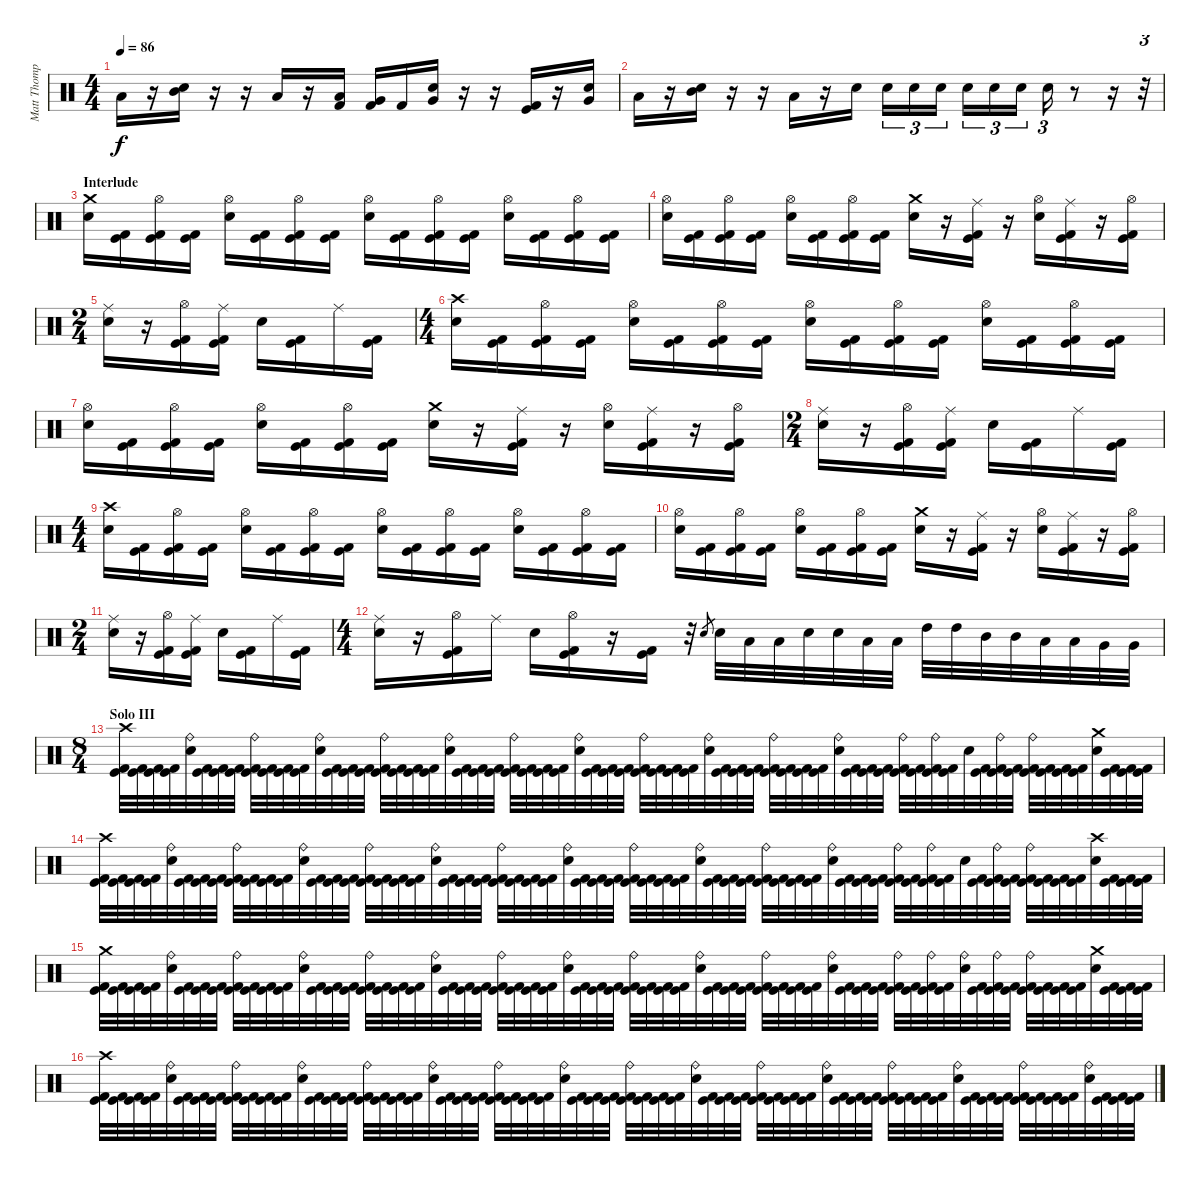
\track ("Matt Thompson" "Matt Thomp") {instrument percussion}
\staff {score}
\articulation defaults
\ts (4 4)
\tempo 86
\clef neutral
\ks c "Low Tom (hit)".16{dy f}
r.16 ("Mid Tom (hit)" "Snare (hit) 2").16 r.16 r.16 "Low Tom (hit)".16 r.16 ("Low Tom (hit)" "Kick (hit) 2").16 ("Very Low Tom (hit)" "Kick (hit) 2").16 "Kick (hit) 2".16 ("Very Low Tom (hit)" "Snare (hit) 2").16 r.16 r.16 ("Kick (hit)" "Kick (hit) 2").16 r.16 ("Very Low Tom (hit)" "Snare (hit) 2").16 |
"Low Tom (hit)".16 r.16 ("Mid Tom (hit)" "Snare (hit) 2").16 r.16 r.16 "Low Tom (hit)".16 r.16 "Snare (hit) 2".16 "Snare (hit) 2".16{tu (3 2)} "Snare (hit) 2".16{tu (3 2)} "Snare (hit) 2".16{tu (3 2)} "Snare (hit) 2".16{tu (3 2)} "Snare (hit) 2".16{tu (3 2)} "Snare (hit) 2".16{tu (3 2)} "Snare (hit) 2".16{tu (3 2)} r.8 r.16 r.32{tu (3 2)} |
\section ("" "Interlude")
("Crash medium (hit)" "Snare (hit) 2").16 ("Kick (hit)" "Kick (hit) 2").16 ("Hi-Hat (open)" "Kick (hit)" "Kick (hit) 2").16 ("Kick (hit)" "Kick (hit) 2").16 ("Hi-Hat (open)" "Snare (hit) 2").16 ("Kick (hit)" "Kick (hit) 2").16 ("Hi-Hat (open)" "Kick (hit)" "Kick (hit) 2").16 ("Kick (hit)" "Kick (hit) 2").16 ("Hi-Hat (open)" "Snare (hit) 2").16 ("Kick (hit)" "Kick (hit) 2").16 ("Hi-Hat (open)" "Kick (hit)" "Kick (hit) 2").16 ("Kick (hit)" "Kick (hit) 2").16 ("Hi-Hat (open)" "Snare (hit) 2").16 ("Kick (hit)" "Kick (hit) 2").16 ("Hi-Hat (open)" "Kick (hit)" "Kick (hit) 2").16 ("Kick (hit)" "Kick (hit) 2").16 |
("Hi-Hat (open)" "Snare (hit) 2").16 ("Kick (hit)" "Kick (hit) 2").16 ("Hi-Hat (open)" "Kick (hit)" "Kick (hit) 2").16 ("Kick (hit)" "Kick (hit) 2").16 ("Hi-Hat (open)" "Snare (hit) 2").16 ("Kick (hit)" "Kick (hit) 2").16 ("Hi-Hat (open)" "Kick (hit)" "Kick (hit) 2").16 ("Kick (hit)" "Kick (hit) 2").16 ("Crash medium (hit)" "Snare (hit) 2").16 r.16 ("Ride (middle)" "Kick (hit)" "Kick (hit) 2").16 r.16 ("Hi-Hat (open)" "Snare (hit) 2").16 ("Ride (middle)" "Kick (hit)" "Kick (hit) 2").16 r.16 ("Hi-Hat (open)" "Kick (hit)" "Kick (hit) 2").16 |
\ts (2 4)
("Ride (middle)" "Snare (hit) 2").16 r.16 ("Hi-Hat (open)" "Kick (hit)" "Kick (hit) 2").16 ("Ride (middle)" "Kick (hit)" "Kick (hit) 2").16 "Snare (hit) 2".16 ("Kick (hit)" "Kick (hit) 2").16 "Ride (middle)".16 ("Kick (hit)" "Kick (hit) 2").16 |
\ts (4 4)
("Crash high (hit)" "Snare (hit) 2").16 ("Kick (hit)" "Kick (hit) 2").16 ("Hi-Hat (open)" "Kick (hit)" "Kick (hit) 2").16 ("Kick (hit)" "Kick (hit) 2").16 ("Hi-Hat (open)" "Snare (hit) 2").16 ("Kick (hit)" "Kick (hit) 2").16 ("Hi-Hat (open)" "Kick (hit)" "Kick (hit) 2").16 ("Kick (hit)" "Kick (hit) 2").16 ("Hi-Hat (open)" "Snare (hit) 2").16 ("Kick (hit)" "Kick (hit) 2").16 ("Hi-Hat (open)" "Kick (hit)" "Kick (hit) 2").16 ("Kick (hit)" "Kick (hit) 2").16 ("Hi-Hat (open)" "Snare (hit) 2").16 ("Kick (hit)" "Kick (hit) 2").16 ("Hi-Hat (open)" "Kick (hit)" "Kick (hit) 2").16 ("Kick (hit)" "Kick (hit) 2").16 |
("Hi-Hat (open)" "Snare (hit) 2").16 ("Kick (hit)" "Kick (hit) 2").16 ("Hi-Hat (open)" "Kick (hit)" "Kick (hit) 2").16 ("Kick (hit)" "Kick (hit) 2").16 ("Hi-Hat (open)" "Snare (hit) 2").16 ("Kick (hit)" "Kick (hit) 2").16 ("Hi-Hat (open)" "Kick (hit)" "Kick (hit) 2").16 ("Kick (hit)" "Kick (hit) 2").16 ("Crash medium (hit)" "Snare (hit) 2").16 r.16 ("Ride (middle)" "Kick (hit)" "Kick (hit) 2").16 r.16 ("Hi-Hat (open)" "Snare (hit) 2").16 ("Ride (middle)" "Kick (hit)" "Kick (hit) 2").16 r.16 ("Hi-Hat (open)" "Kick (hit)" "Kick (hit) 2").16 |
\ts (2 4)
("Ride (middle)" "Snare (hit) 2").16 r.16 ("Hi-Hat (open)" "Kick (hit)" "Kick (hit) 2").16 ("Ride (middle)" "Kick (hit)" "Kick (hit) 2").16 "Snare (hit) 2".16 ("Kick (hit)" "Kick (hit) 2").16 "Ride (middle)".16 ("Kick (hit)" "Kick (hit) 2").16 |
\ts (4 4)
("Crash high (hit)" "Snare (hit) 2").16 ("Kick (hit)" "Kick (hit) 2").16 ("Hi-Hat (open)" "Kick (hit)" "Kick (hit) 2").16 ("Kick (hit)" "Kick (hit) 2").16 ("Hi-Hat (open)" "Snare (hit) 2").16 ("Kick (hit)" "Kick (hit) 2").16 ("Hi-Hat (open)" "Kick (hit)" "Kick (hit) 2").16 ("Kick (hit)" "Kick (hit) 2").16 ("Hi-Hat (open)" "Snare (hit) 2").16 ("Kick (hit)" "Kick (hit) 2").16 ("Hi-Hat (open)" "Kick (hit)" "Kick (hit) 2").16 ("Kick (hit)" "Kick (hit) 2").16 ("Hi-Hat (open)" "Snare (hit) 2").16 ("Kick (hit)" "Kick (hit) 2").16 ("Hi-Hat (open)" "Kick (hit)" "Kick (hit) 2").16 ("Kick (hit)" "Kick (hit) 2").16 |
("Hi-Hat (open)" "Snare (hit) 2").16 ("Kick (hit)" "Kick (hit) 2").16 ("Hi-Hat (open)" "Kick (hit)" "Kick (hit) 2").16 ("Kick (hit)" "Kick (hit) 2").16 ("Hi-Hat (open)" "Snare (hit) 2").16 ("Kick (hit)" "Kick (hit) 2").16 ("Hi-Hat (open)" "Kick (hit)" "Kick (hit) 2").16 ("Kick (hit)" "Kick (hit) 2").16 ("Crash medium (hit)" "Snare (hit) 2").16 r.16 ("Ride (middle)" "Kick (hit)" "Kick (hit) 2").16 r.16 ("Hi-Hat (open)" "Snare (hit) 2").16 ("Ride (middle)" "Kick (hit)" "Kick (hit) 2").16 r.16 ("Hi-Hat (open)" "Kick (hit)" "Kick (hit) 2").16 |
\ts (2 4)
("Ride (middle)" "Snare (hit) 2").16 r.16 ("Hi-Hat (open)" "Kick (hit)" "Kick (hit) 2").16 ("Ride (middle)" "Kick (hit)" "Kick (hit) 2").16 "Snare (hit) 2".16 ("Kick (hit)" "Kick (hit) 2").16 "Ride (middle)".16 ("Kick (hit)" "Kick (hit) 2").16 |
\ts (4 4)
("Ride (middle)" "Snare (hit) 2").16 r.16 ("Hi-Hat (open)" "Kick (hit)" "Kick (hit) 2").16 "Ride (middle)".16 "Snare (hit) 2".16 ("Hi-Hat (open)" "Kick (hit)" "Kick (hit) 2").16 r.16 ("Kick (hit)" "Kick (hit) 2").16 r.32 "Snare (hit) 2".8{gr} "Snare (hit) 2".32 "Low Tom (hit)".32 "Low Tom (hit)".32 "Snare (hit) 2".32 "Snare (hit) 2".32 "Low Tom (hit)".32 "Low Tom (hit)".32 "High Tom (hit)".32 "High Tom (hit)".32 "Mid Tom (hit)".32 "Mid Tom (hit)".32 "Low Tom (hit)".32 "Low Tom (hit)".32 "Very Low Tom (hit)".32 "Very Low Tom (hit)".32 |
\ts (8 4)
\section ("" "Solo III")
("Crash high (hit)" "Kick (hit)" "Kick (hit) 2").32 ("Kick (hit)" "Kick (hit) 2").32 ("Kick (hit)" "Kick (hit) 2").32 ("Kick (hit)" "Kick (hit) 2").32 ("Ride (bell)" "Snare (hit) 2").32 ("Kick (hit)" "Kick (hit) 2").32 ("Kick (hit)" "Kick (hit) 2").32 ("Kick (hit)" "Kick (hit) 2").32 ("Ride (bell)" "Kick (hit)" "Kick (hit) 2").32 ("Kick (hit)" "Kick (hit) 2").32 ("Kick (hit)" "Kick (hit) 2").32 ("Kick (hit)" "Kick (hit) 2").32 ("Ride (bell)" "Snare (hit) 2").32 ("Kick (hit)" "Kick (hit) 2").32 ("Kick (hit)" "Kick (hit) 2").32 ("Kick (hit)" "Kick (hit) 2").32 ("Ride (bell)" "Kick (hit)" "Kick (hit) 2").32 ("Kick (hit)" "Kick (hit) 2").32 ("Kick (hit)" "Kick (hit) 2").32 ("Kick (hit)" "Kick (hit) 2").32 ("Ride (bell)" "Snare (hit) 2").32 ("Kick (hit)" "Kick (hit) 2").32 ("Kick (hit)" "Kick (hit) 2").32 ("Kick (hit)" "Kick (hit) 2").32 ("Ride (bell)" "Kick (hit)" "Kick (hit) 2").32 ("Kick (hit)" "Kick (hit) 2").32 ("Kick (hit)" "Kick (hit) 2").32 ("Kick (hit)" "Kick (hit) 2").32 ("Ride (bell)" "Snare (hit) 2").32 ("Kick (hit)" "Kick (hit) 2").32 ("Kick (hit)" "Kick (hit) 2").32 ("Kick (hit)" "Kick (hit) 2").32 ("Ride (bell)" "Kick (hit)" "Kick (hit) 2").32 ("Kick (hit)" "Kick (hit) 2").32 ("Kick (hit)" "Kick (hit) 2").32 ("Kick (hit)" "Kick (hit) 2").32 ("Ride (bell)" "Snare (hit) 2").32 ("Kick (hit)" "Kick (hit) 2").32 ("Kick (hit)" "Kick (hit) 2").32 ("Kick (hit)" "Kick (hit) 2").32 ("Ride (bell)" "Kick (hit)" "Kick (hit) 2").32 ("Kick (hit)" "Kick (hit) 2").32 ("Kick (hit)" "Kick (hit) 2").32 ("Kick (hit)" "Kick (hit) 2").32 ("Ride (bell)" "Snare (hit) 2").32 ("Kick (hit)" "Kick (hit) 2").32 ("Kick (hit)" "Kick (hit) 2").32 ("Kick (hit)" "Kick (hit) 2").32 ("Ride (bell)" "Kick (hit)" "Kick (hit) 2").32 ("Kick (hit)" "Kick (hit) 2").32 ("Ride (bell)" "Kick (hit)" "Kick (hit) 2").32 ("Kick (hit)" "Kick (hit) 2").32 "Snare (hit) 2".32 ("Kick (hit)" "Kick (hit) 2").32 ("Ride (bell)" "Kick (hit)" "Kick (hit) 2").32 ("Kick (hit)" "Kick (hit) 2").32 ("Ride (bell)" "Kick (hit)" "Kick (hit) 2").32 ("Kick (hit)" "Kick (hit) 2").32 ("Kick (hit)" "Kick (hit) 2").32 ("Kick (hit)" "Kick (hit) 2").32 ("Crash medium (hit)" "Snare (hit) 2").32 ("Kick (hit)" "Kick (hit) 2").32 ("Kick (hit)" "Kick (hit) 2").32 ("Kick (hit)" "Kick (hit) 2").32 |
("Crash high (hit)" "Kick (hit)" "Kick (hit) 2").32 ("Kick (hit)" "Kick (hit) 2").32 ("Kick (hit)" "Kick (hit) 2").32 ("Kick (hit)" "Kick (hit) 2").32 ("Ride (bell)" "Snare (hit) 2").32 ("Kick (hit)" "Kick (hit) 2").32 ("Kick (hit)" "Kick (hit) 2").32 ("Kick (hit)" "Kick (hit) 2").32 ("Ride (bell)" "Kick (hit)" "Kick (hit) 2").32 ("Kick (hit)" "Kick (hit) 2").32 ("Kick (hit)" "Kick (hit) 2").32 ("Kick (hit)" "Kick (hit) 2").32 ("Ride (bell)" "Snare (hit) 2").32 ("Kick (hit)" "Kick (hit) 2").32 ("Kick (hit)" "Kick (hit) 2").32 ("Kick (hit)" "Kick (hit) 2").32 ("Ride (bell)" "Kick (hit)" "Kick (hit) 2").32 ("Kick (hit)" "Kick (hit) 2").32 ("Kick (hit)" "Kick (hit) 2").32 ("Kick (hit)" "Kick (hit) 2").32 ("Ride (bell)" "Snare (hit) 2").32 ("Kick (hit)" "Kick (hit) 2").32 ("Kick (hit)" "Kick (hit) 2").32 ("Kick (hit)" "Kick (hit) 2").32 ("Ride (bell)" "Kick (hit)" "Kick (hit) 2").32 ("Kick (hit)" "Kick (hit) 2").32 ("Kick (hit)" "Kick (hit) 2").32 ("Kick (hit)" "Kick (hit) 2").32 ("Ride (bell)" "Snare (hit) 2").32 ("Kick (hit)" "Kick (hit) 2").32 ("Kick (hit)" "Kick (hit) 2").32 ("Kick (hit)" "Kick (hit) 2").32 ("Ride (bell)" "Kick (hit)" "Kick (hit) 2").32 ("Kick (hit)" "Kick (hit) 2").32 ("Kick (hit)" "Kick (hit) 2").32 ("Kick (hit)" "Kick (hit) 2").32 ("Ride (bell)" "Snare (hit) 2").32 ("Kick (hit)" "Kick (hit) 2").32 ("Kick (hit)" "Kick (hit) 2").32 ("Kick (hit)" "Kick (hit) 2").32 ("Ride (bell)" "Kick (hit)" "Kick (hit) 2").32 ("Kick (hit)" "Kick (hit) 2").32 ("Kick (hit)" "Kick (hit) 2").32 ("Kick (hit)" "Kick (hit) 2").32 ("Ride (bell)" "Snare (hit) 2").32 ("Kick (hit)" "Kick (hit) 2").32 ("Kick (hit)" "Kick (hit) 2").32 ("Kick (hit)" "Kick (hit) 2").32 ("Ride (bell)" "Kick (hit)" "Kick (hit) 2").32 ("Kick (hit)" "Kick (hit) 2").32 ("Ride (bell)" "Kick (hit)" "Kick (hit) 2").32 ("Kick (hit)" "Kick (hit) 2").32 "Snare (hit) 2".32 ("Kick (hit)" "Kick (hit) 2").32 ("Ride (bell)" "Kick (hit)" "Kick (hit) 2").32 ("Kick (hit)" "Kick (hit) 2").32 ("Ride (bell)" "Kick (hit)" "Kick (hit) 2").32 ("Kick (hit)" "Kick (hit) 2").32 ("Kick (hit)" "Kick (hit) 2").32 ("Kick (hit)" "Kick (hit) 2").32 ("Crash high (hit)" "Snare (hit) 2").32 ("Kick (hit)" "Kick (hit) 2").32 ("Kick (hit)" "Kick (hit) 2").32 ("Kick (hit)" "Kick (hit) 2").32 |
("Crash medium (hit)" "Kick (hit)" "Kick (hit) 2").32 ("Kick (hit)" "Kick (hit) 2").32 ("Kick (hit)" "Kick (hit) 2").32 ("Kick (hit)" "Kick (hit) 2").32 ("Ride (bell)" "Snare (hit) 2").32 ("Kick (hit)" "Kick (hit) 2").32 ("Kick (hit)" "Kick (hit) 2").32 ("Kick (hit)" "Kick (hit) 2").32 ("Ride (bell)" "Kick (hit)" "Kick (hit) 2").32 ("Kick (hit)" "Kick (hit) 2").32 ("Kick (hit)" "Kick (hit) 2").32 ("Kick (hit)" "Kick (hit) 2").32 ("Ride (bell)" "Snare (hit) 2").32 ("Kick (hit)" "Kick (hit) 2").32 ("Kick (hit)" "Kick (hit) 2").32 ("Kick (hit)" "Kick (hit) 2").32 ("Ride (bell)" "Kick (hit)" "Kick (hit) 2").32 ("Kick (hit)" "Kick (hit) 2").32 ("Kick (hit)" "Kick (hit) 2").32 ("Kick (hit)" "Kick (hit) 2").32 ("Ride (bell)" "Snare (hit) 2").32 ("Kick (hit)" "Kick (hit) 2").32 ("Kick (hit)" "Kick (hit) 2").32 ("Kick (hit)" "Kick (hit) 2").32 ("Ride (bell)" "Kick (hit)" "Kick (hit) 2").32 ("Kick (hit)" "Kick (hit) 2").32 ("Kick (hit)" "Kick (hit) 2").32 ("Kick (hit)" "Kick (hit) 2").32 ("Ride (bell)" "Snare (hit) 2").32 ("Kick (hit)" "Kick (hit) 2").32 ("Kick (hit)" "Kick (hit) 2").32 ("Kick (hit)" "Kick (hit) 2").32 ("Ride (bell)" "Kick (hit)" "Kick (hit) 2").32 ("Kick (hit)" "Kick (hit) 2").32 ("Kick (hit)" "Kick (hit) 2").32 ("Kick (hit)" "Kick (hit) 2").32 ("Ride (bell)" "Snare (hit) 2").32 ("Kick (hit)" "Kick (hit) 2").32 ("Kick (hit)" "Kick (hit) 2").32 ("Kick (hit)" "Kick (hit) 2").32 ("Ride (bell)" "Kick (hit)" "Kick (hit) 2").32 ("Kick (hit)" "Kick (hit) 2").32 ("Kick (hit)" "Kick (hit) 2").32 ("Kick (hit)" "Kick (hit) 2").32 ("Ride (bell)" "Snare (hit) 2").32 ("Kick (hit)" "Kick (hit) 2").32 ("Kick (hit)" "Kick (hit) 2").32 ("Kick (hit)" "Kick (hit) 2").32 ("Ride (bell)" "Kick (hit)" "Kick (hit) 2").32 ("Kick (hit)" "Kick (hit) 2").32 ("Ride (bell)" "Kick (hit)" "Kick (hit) 2").32 ("Kick (hit)" "Kick (hit) 2").32 ("Ride (bell)" "Snare (hit) 2").32 ("Kick (hit)" "Kick (hit) 2").32 ("Ride (bell)" "Kick (hit)" "Kick (hit) 2").32 ("Kick (hit)" "Kick (hit) 2").32 ("Ride (bell)" "Kick (hit)" "Kick (hit) 2").32 ("Kick (hit)" "Kick (hit) 2").32 ("Kick (hit)" "Kick (hit) 2").32 ("Kick (hit)" "Kick (hit) 2").32 ("Crash medium (hit)" "Snare (hit) 2").32 ("Kick (hit)" "Kick (hit) 2").32 ("Kick (hit)" "Kick (hit) 2").32 ("Kick (hit)" "Kick (hit) 2").32 |
("Crash high (hit)" "Kick (hit)" "Kick (hit) 2").32 ("Kick (hit)" "Kick (hit) 2").32 ("Kick (hit)" "Kick (hit) 2").32 ("Kick (hit)" "Kick (hit) 2").32 ("Ride (bell)" "Snare (hit) 2").32 ("Kick (hit)" "Kick (hit) 2").32 ("Kick (hit)" "Kick (hit) 2").32 ("Kick (hit)" "Kick (hit) 2").32 ("Ride (bell)" "Kick (hit)" "Kick (hit) 2").32 ("Kick (hit)" "Kick (hit) 2").32 ("Kick (hit)" "Kick (hit) 2").32 ("Kick (hit)" "Kick (hit) 2").32 ("Ride (bell)" "Snare (hit) 2").32 ("Kick (hit)" "Kick (hit) 2").32 ("Kick (hit)" "Kick (hit) 2").32 ("Kick (hit)" "Kick (hit) 2").32 ("Ride (bell)" "Kick (hit)" "Kick (hit) 2").32 ("Kick (hit)" "Kick (hit) 2").32 ("Kick (hit)" "Kick (hit) 2").32 ("Kick (hit)" "Kick (hit) 2").32 ("Ride (bell)" "Snare (hit) 2").32 ("Kick (hit)" "Kick (hit) 2").32 ("Kick (hit)" "Kick (hit) 2").32 ("Kick (hit)" "Kick (hit) 2").32 ("Ride (bell)" "Kick (hit)" "Kick (hit) 2").32 ("Kick (hit)" "Kick (hit) 2").32 ("Kick (hit)" "Kick (hit) 2").32 ("Kick (hit)" "Kick (hit) 2").32 ("Ride (bell)" "Snare (hit) 2").32 ("Kick (hit)" "Kick (hit) 2").32 ("Kick (hit)" "Kick (hit) 2").32 ("Kick (hit)" "Kick (hit) 2").32 ("Ride (bell)" "Kick (hit)" "Kick (hit) 2").32 ("Kick (hit)" "Kick (hit) 2").32 ("Kick (hit)" "Kick (hit) 2").32 ("Kick (hit)" "Kick (hit) 2").32 ("Ride (bell)" "Snare (hit) 2").32 ("Kick (hit)" "Kick (hit) 2").32 ("Kick (hit)" "Kick (hit) 2").32 ("Kick (hit)" "Kick (hit) 2").32 ("Ride (bell)" "Kick (hit)" "Kick (hit) 2").32 ("Kick (hit)" "Kick (hit) 2").32 ("Kick (hit)" "Kick (hit) 2").32 ("Kick (hit)" "Kick (hit) 2").32 ("Ride (bell)" "Snare (hit) 2").32 ("Kick (hit)" "Kick (hit) 2").32 ("Kick (hit)" "Kick (hit) 2").32 ("Kick (hit)" "Kick (hit) 2").32 ("Ride (bell)" "Kick (hit)" "Kick (hit) 2").32 ("Kick (hit)" "Kick (hit) 2").32 ("Kick (hit)" "Kick (hit) 2").32 ("Kick (hit)" "Kick (hit) 2").32 ("Ride (bell)" "Snare (hit) 2").32 ("Kick (hit)" "Kick (hit) 2").32 ("Kick (hit)" "Kick (hit) 2").32 ("Kick (hit)" "Kick (hit) 2").32 ("Ride (bell)" "Kick (hit)" "Kick (hit) 2").32 ("Kick (hit)" "Kick (hit) 2").32 ("Kick (hit)" "Kick (hit) 2").32 ("Kick (hit)" "Kick (hit) 2").32 ("Ride (bell)" "Snare (hit) 2").32 ("Kick (hit)" "Kick (hit) 2").32 ("Kick (hit)" "Kick (hit) 2").32 ("Kick (hit)" "Kick (hit) 2").32
